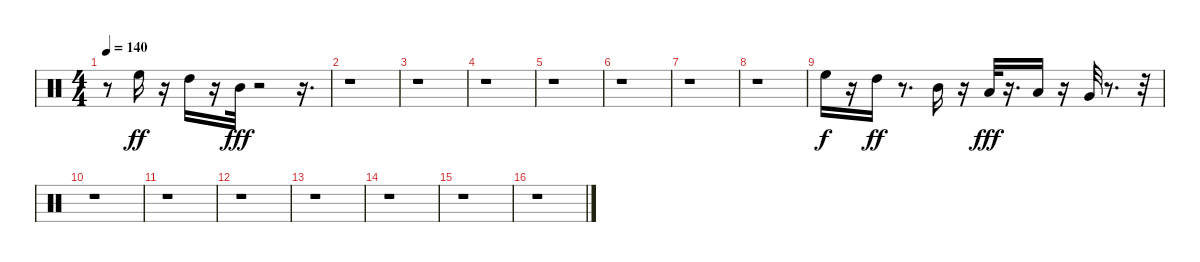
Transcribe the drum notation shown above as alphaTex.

\track "" {instrument percussion}
\staff {score}
\articulation defaults
\ts (4 4)
\tempo 140
\clef neutral
\ks c
r.8{dy fff} "High Floor Tom (hit)".16{dy ff} r.16 "High Tom (hit)".16 r.16 "Mid Tom (hit)".32{dy fff} r.2 r.16{d} |
r.1 |
r.1 |
r.1 |
r.1 |
r.1 |
r.1 |
r.1 |
"High Floor Tom (hit)".16{dy f} r.16 "High Tom (hit)".16{dy ff} r.8{d} "Mid Tom (hit)".16 r.16 "Low Tom (hit)".32{dy fff} r.16{d} "Low Tom (hit)".16 r.16 "Very Low Tom (hit)".32 r.8{d} r.32 |
r.1 |
r.1 |
r.1 |
r.1 |
r.1 |
r.1 |
r.1
